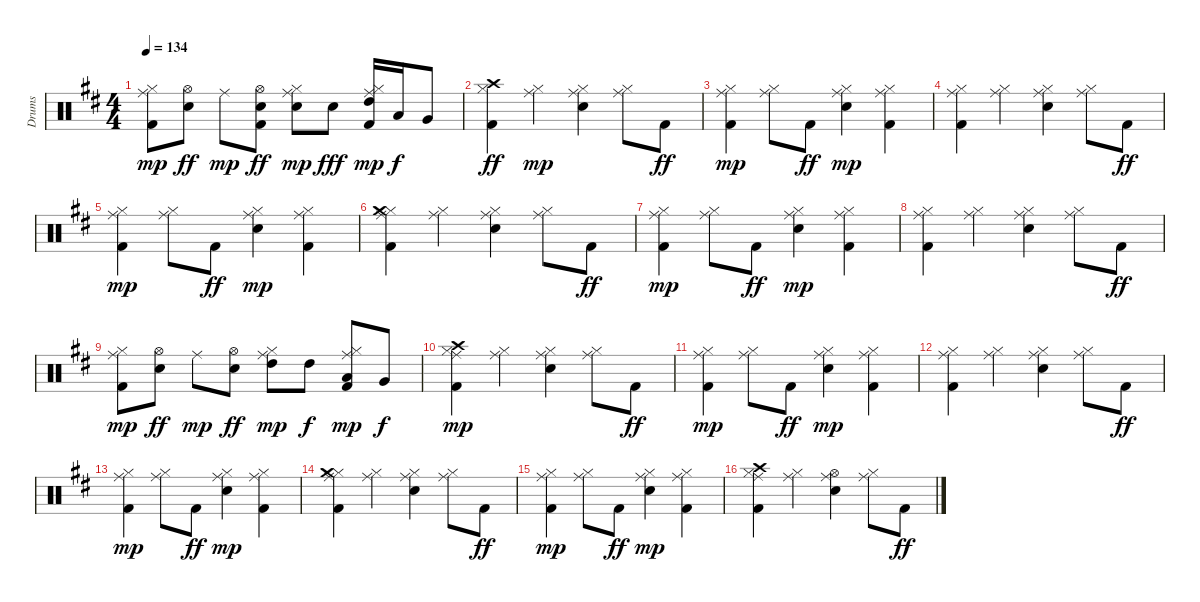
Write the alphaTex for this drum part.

\track ("Drums" "Drums") {instrument percussion}
\staff {score}
\articulation defaults
\ts (4 4)
\tempo 134
\clef neutral
\ks d
("Kick (hit) 2" "Hi-Hat (closed)" "Ride (middle)").8{dy mp} ("Snare (hit) 2" "Hi-Hat (open)").8{dy ff} "Ride (middle)".8{dy mp} ("Kick (hit) 2" "Snare (hit) 2" "Hi-Hat (open)").8{dy ff} ("Snare (hit) 2" "Hi-Hat (closed)" "Ride (middle)").8{dy mp} "Snare (hit) 2".8{dy fff} ("Kick (hit) 2" "Hi-Hat (closed)" "High Tom (hit)" "Ride (middle)").16{dy mp} "Low Tom (hit)".16{dy f} "Very Low Tom (hit)".8 |
("Kick (hit) 2" "Hi-Hat (closed)" "Crash high (hit)").4{dy ff} ("Hi-Hat (closed)" "Ride (middle)").4{dy mp} ("Snare (hit) 2" "Hi-Hat (closed)" "Ride (middle)").4 ("Hi-Hat (closed)" "Ride (middle)").8 "Kick (hit) 2".8{dy ff} |
("Kick (hit) 2" "Hi-Hat (closed)" "Ride (middle)").4{dy mp} ("Hi-Hat (closed)" "Ride (middle)").8 "Kick (hit) 2".8{dy ff} ("Snare (hit) 2" "Hi-Hat (closed)" "Ride (middle)").4{dy mp} ("Kick (hit) 2" "Hi-Hat (closed)" "Ride (middle)").4 |
("Kick (hit) 2" "Hi-Hat (closed)" "Ride (middle)").4 ("Hi-Hat (closed)" "Ride (middle)").4 ("Snare (hit) 2" "Hi-Hat (closed)" "Ride (middle)").4 ("Hi-Hat (closed)" "Ride (middle)").8 "Kick (hit) 2".8{dy ff} |
("Kick (hit) 2" "Hi-Hat (closed)" "Ride (middle)").4{dy mp} ("Hi-Hat (closed)" "Ride (middle)").8 "Kick (hit) 2".8{dy ff} ("Snare (hit) 2" "Hi-Hat (closed)" "Ride (middle)").4{dy mp} ("Kick (hit) 2" "Hi-Hat (closed)" "Ride (middle)").4 |
("Kick (hit) 2" "Hi-Hat (closed)" "Crash medium (hit)" "Ride (middle)").4 ("Hi-Hat (closed)" "Ride (middle)").4 ("Snare (hit) 2" "Hi-Hat (closed)" "Ride (middle)").4 ("Hi-Hat (closed)" "Ride (middle)").8 "Kick (hit) 2".8{dy ff} |
("Kick (hit) 2" "Hi-Hat (closed)" "Ride (middle)").4{dy mp} ("Hi-Hat (closed)" "Ride (middle)").8 "Kick (hit) 2".8{dy ff} ("Snare (hit) 2" "Hi-Hat (closed)" "Ride (middle)").4{dy mp} ("Kick (hit) 2" "Hi-Hat (closed)" "Ride (middle)").4 |
("Kick (hit) 2" "Hi-Hat (closed)" "Ride (middle)").4 ("Hi-Hat (closed)" "Ride (middle)").4 ("Snare (hit) 2" "Hi-Hat (closed)" "Ride (middle)").4 ("Hi-Hat (closed)" "Ride (middle)").8 "Kick (hit) 2".8{dy ff} |
("Kick (hit) 2" "Hi-Hat (closed)" "Ride (middle)").8{dy mp} ("Snare (hit) 2" "Hi-Hat (open)").8{dy ff} "Ride (middle)".8{dy mp} ("Snare (hit) 2" "Hi-Hat (open)").8{dy ff} ("Hi-Hat (closed)" "High Tom (hit)" "Ride (middle)").8{dy mp} "High Tom (hit)".8{dy f} ("Kick (hit) 2" "Hi-Hat (closed)" "Low Tom (hit)" "Ride (middle)").8{dy mp} "Very Low Tom (hit)".8{dy f} |
("Kick (hit) 2" "Hi-Hat (closed)" "Crash high (hit)" "Ride (middle)").4{dy mp} ("Hi-Hat (closed)" "Ride (middle)").4 ("Snare (hit) 2" "Hi-Hat (closed)" "Ride (middle)").4 ("Hi-Hat (closed)" "Ride (middle)").8 "Kick (hit) 2".8{dy ff} |
("Kick (hit) 2" "Hi-Hat (closed)" "Ride (middle)").4{dy mp} ("Hi-Hat (closed)" "Ride (middle)").8 "Kick (hit) 2".8{dy ff} ("Snare (hit) 2" "Hi-Hat (closed)" "Ride (middle)").4{dy mp} ("Kick (hit) 2" "Hi-Hat (closed)" "Ride (middle)").4 |
("Kick (hit) 2" "Hi-Hat (closed)" "Ride (middle)").4 ("Hi-Hat (closed)" "Ride (middle)").4 ("Snare (hit) 2" "Hi-Hat (closed)" "Ride (middle)").4 ("Hi-Hat (closed)" "Ride (middle)").8 "Kick (hit) 2".8{dy ff} |
("Kick (hit) 2" "Hi-Hat (closed)" "Ride (middle)").4{dy mp} ("Hi-Hat (closed)" "Ride (middle)").8 "Kick (hit) 2".8{dy ff} ("Snare (hit) 2" "Hi-Hat (closed)" "Ride (middle)").4{dy mp} ("Kick (hit) 2" "Hi-Hat (closed)" "Ride (middle)").4 |
("Kick (hit) 2" "Hi-Hat (closed)" "Crash medium (hit)" "Ride (middle)").4 ("Hi-Hat (closed)" "Ride (middle)").4 ("Snare (hit) 2" "Hi-Hat (closed)" "Ride (middle)").4 ("Hi-Hat (closed)" "Ride (middle)").8 "Kick (hit) 2".8{dy ff} |
("Kick (hit) 2" "Hi-Hat (closed)" "Ride (middle)").4{dy mp} ("Hi-Hat (closed)" "Ride (middle)").8 "Kick (hit) 2".8{dy ff} ("Snare (hit) 2" "Hi-Hat (closed)" "Ride (middle)").4{dy mp} ("Kick (hit) 2" "Hi-Hat (closed)" "Ride (middle)").4 |
("Kick (hit) 2" "Hi-Hat (closed)" "Crash high (hit)" "Ride (middle)").4 ("Hi-Hat (closed)" "Ride (middle)").4 ("Snare (hit) 2" "Hi-Hat (open)" "Ride (middle)").4 ("Hi-Hat (closed)" "Ride (middle)").8 "Kick (hit) 2".8{dy ff}
